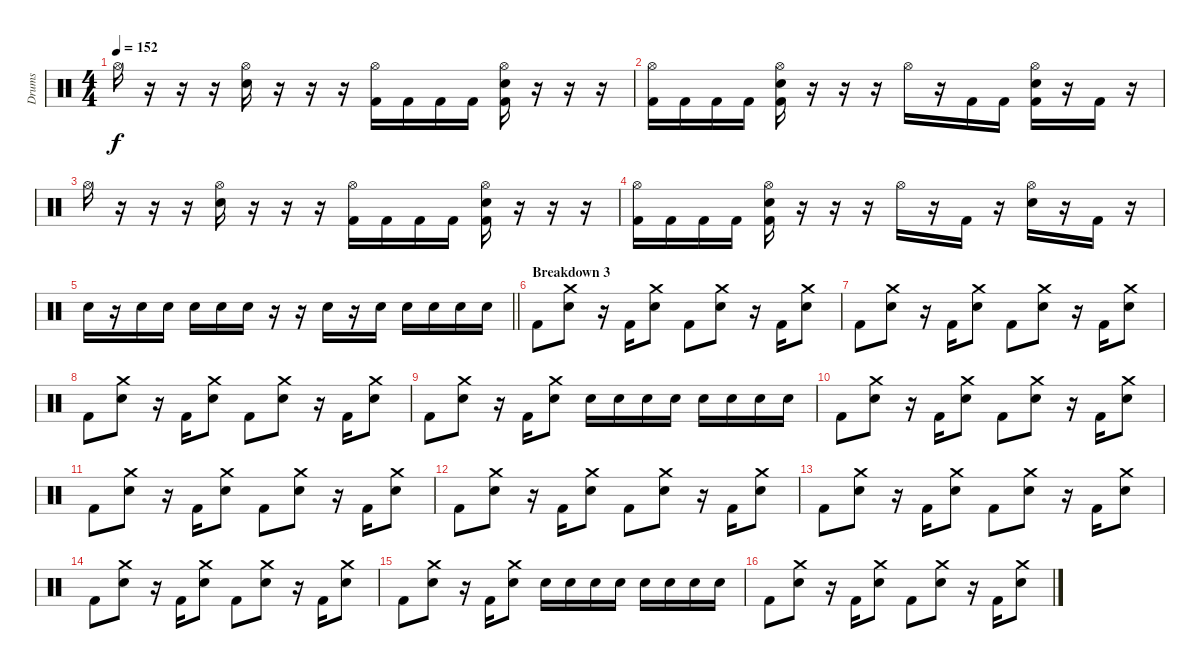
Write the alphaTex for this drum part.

\track ("Drums" "Drums") {instrument percussion}
\staff
\articulation defaults
\ts (4 4)
\tempo 152
\clef neutral
\ks c "Hi-Hat (open)".16{dy f}
r.16 r.16 r.16 ("Hi-Hat (open)" "Electric Snare (hit)").16 r.16 r.16 r.16 ("Hi-Hat (open)" "Kick (hit) 2").16 "Kick (hit) 2".16 "Kick (hit) 2".16 "Kick (hit) 2".16 ("Hi-Hat (open)" "Electric Snare (hit)" "Kick (hit) 2").16 r.16 r.16 r.16 |
("Hi-Hat (open)" "Kick (hit) 2").16 "Kick (hit) 2".16 "Kick (hit) 2".16 "Kick (hit) 2".16 ("Hi-Hat (open)" "Electric Snare (hit)" "Kick (hit) 2").16 r.16 r.16 r.16 "Hi-Hat (open)".16 r.16 "Kick (hit) 2".16 "Kick (hit) 2".16 ("Hi-Hat (open)" "Electric Snare (hit)" "Kick (hit) 2").16 r.16 "Kick (hit) 2".16 r.16 |
"Hi-Hat (open)".16 r.16 r.16 r.16 ("Hi-Hat (open)" "Electric Snare (hit)").16 r.16 r.16 r.16 ("Hi-Hat (open)" "Kick (hit) 2").16 "Kick (hit) 2".16 "Kick (hit) 2".16 "Kick (hit) 2".16 ("Hi-Hat (open)" "Electric Snare (hit)" "Kick (hit) 2").16 r.16 r.16 r.16 |
("Hi-Hat (open)" "Kick (hit) 2").16 "Kick (hit) 2".16 "Kick (hit) 2".16 "Kick (hit) 2".16 ("Hi-Hat (open)" "Electric Snare (hit)" "Kick (hit) 2").16 r.16 r.16 r.16 "Hi-Hat (open)".16 r.16 "Kick (hit) 2".16 r.16 ("Hi-Hat (open)" "Electric Snare (hit)").16 r.16 "Kick (hit) 2".16 r.16 |
\barLineRight lightlight "Electric Snare (hit)".16
r.16 "Electric Snare (hit)".16 "Electric Snare (hit)".16 "Electric Snare (hit)".16 "Electric Snare (hit)".16 "Electric Snare (hit)".16 r.16 r.16 "Electric Snare (hit)".16 r.16 "Electric Snare (hit)".16 "Electric Snare (hit)".16 "Electric Snare (hit)".16 "Electric Snare (hit)".16 "Electric Snare (hit)".16 |
\section ("" "Breakdown 3")
"Kick (hit) 2".8 ("Crash medium (hit)" "Electric Snare (hit)").8 r.16 "Kick (hit) 2".16 ("Crash medium (hit)" "Electric Snare (hit)").8 "Kick (hit) 2".8 ("Crash medium (hit)" "Electric Snare (hit)").8 r.16 "Kick (hit) 2".16 ("Crash medium (hit)" "Electric Snare (hit)").8 |
"Kick (hit) 2".8 ("Crash medium (hit)" "Electric Snare (hit)").8 r.16 "Kick (hit) 2".16 ("Crash medium (hit)" "Electric Snare (hit)").8 "Kick (hit) 2".8 ("Crash medium (hit)" "Electric Snare (hit)").8 r.16 "Kick (hit) 2".16 ("Crash medium (hit)" "Electric Snare (hit)").8 |
"Kick (hit) 2".8 ("Crash medium (hit)" "Electric Snare (hit)").8 r.16 "Kick (hit) 2".16 ("Crash medium (hit)" "Electric Snare (hit)").8 "Kick (hit) 2".8 ("Crash medium (hit)" "Electric Snare (hit)").8 r.16 "Kick (hit) 2".16 ("Crash medium (hit)" "Electric Snare (hit)").8 |
"Kick (hit) 2".8 ("Crash medium (hit)" "Electric Snare (hit)").8 r.16 "Kick (hit) 2".16 ("Crash medium (hit)" "Electric Snare (hit)").8 "Electric Snare (hit)".16 "Electric Snare (hit)".16 "Electric Snare (hit)".16 "Electric Snare (hit)".16 "Electric Snare (hit)".16 "Electric Snare (hit)".16 "Electric Snare (hit)".16 "Electric Snare (hit)".16 |
"Kick (hit) 2".8 ("Crash medium (hit)" "Electric Snare (hit)").8 r.16 "Kick (hit) 2".16 ("Crash medium (hit)" "Electric Snare (hit)").8 "Kick (hit) 2".8 ("Crash medium (hit)" "Electric Snare (hit)").8 r.16 "Kick (hit) 2".16 ("Crash medium (hit)" "Electric Snare (hit)").8 |
"Kick (hit) 2".8 ("Crash medium (hit)" "Electric Snare (hit)").8 r.16 "Kick (hit) 2".16 ("Crash medium (hit)" "Electric Snare (hit)").8 "Kick (hit) 2".8 ("Crash medium (hit)" "Electric Snare (hit)").8 r.16 "Kick (hit) 2".16 ("Crash medium (hit)" "Electric Snare (hit)").8 |
"Kick (hit) 2".8 ("Crash medium (hit)" "Electric Snare (hit)").8 r.16 "Kick (hit) 2".16 ("Crash medium (hit)" "Electric Snare (hit)").8 "Kick (hit) 2".8 ("Crash medium (hit)" "Electric Snare (hit)").8 r.16 "Kick (hit) 2".16 ("Crash medium (hit)" "Electric Snare (hit)").8 |
"Kick (hit) 2".8 ("Crash medium (hit)" "Electric Snare (hit)").8 r.16 "Kick (hit) 2".16 ("Crash medium (hit)" "Electric Snare (hit)").8 "Kick (hit) 2".8 ("Crash medium (hit)" "Electric Snare (hit)").8 r.16 "Kick (hit) 2".16 ("Crash medium (hit)" "Electric Snare (hit)").8 |
"Kick (hit) 2".8 ("Crash medium (hit)" "Electric Snare (hit)").8 r.16 "Kick (hit) 2".16 ("Crash medium (hit)" "Electric Snare (hit)").8 "Kick (hit) 2".8 ("Crash medium (hit)" "Electric Snare (hit)").8 r.16 "Kick (hit) 2".16 ("Crash medium (hit)" "Electric Snare (hit)").8 |
"Kick (hit) 2".8 ("Crash medium (hit)" "Electric Snare (hit)").8 r.16 "Kick (hit) 2".16 ("Crash medium (hit)" "Electric Snare (hit)").8 "Electric Snare (hit)".16 "Electric Snare (hit)".16 "Electric Snare (hit)".16 "Electric Snare (hit)".16 "Electric Snare (hit)".16 "Electric Snare (hit)".16 "Electric Snare (hit)".16 "Electric Snare (hit)".16 |
"Kick (hit) 2".8 ("Crash medium (hit)" "Electric Snare (hit)").8 r.16 "Kick (hit) 2".16 ("Crash medium (hit)" "Electric Snare (hit)").8 "Kick (hit) 2".8 ("Crash medium (hit)" "Electric Snare (hit)").8 r.16 "Kick (hit) 2".16 ("Crash medium (hit)" "Electric Snare (hit)").8
